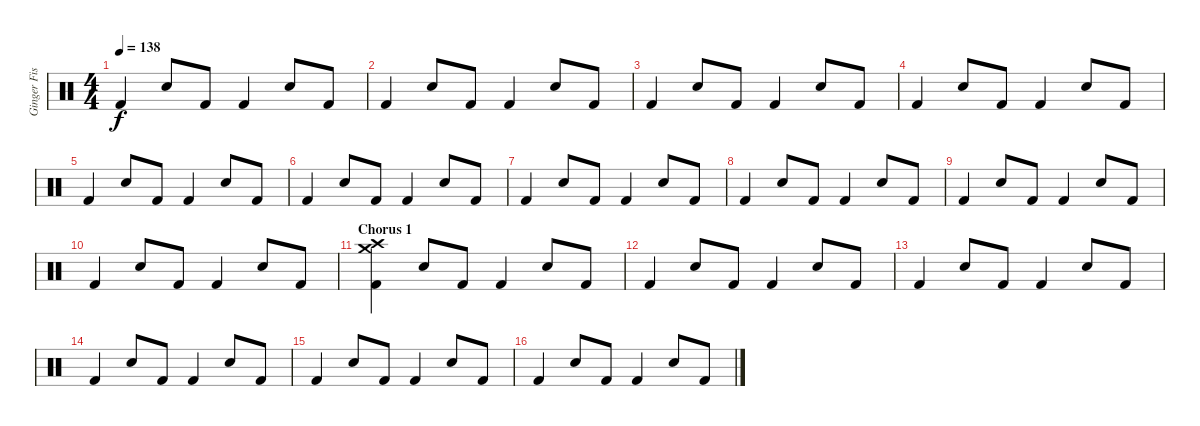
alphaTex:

\track ("Ginger Fish [Drums]" "Ginger Fis") {instrument percussion}
\staff {score}
\articulation defaults
\ts (4 4)
\tempo 138
\clef neutral
\ks c "Kick (hit) 2".4{dy f} "Snare (hit) 2".8 "Kick (hit) 2".8 "Kick (hit) 2".4 "Snare (hit) 2".8 "Kick (hit) 2".8
|
"Kick (hit) 2".4 "Snare (hit) 2".8 "Kick (hit) 2".8 "Kick (hit) 2".4 "Snare (hit) 2".8 "Kick (hit) 2".8 |
"Kick (hit) 2".4 "Snare (hit) 2".8 "Kick (hit) 2".8 "Kick (hit) 2".4 "Snare (hit) 2".8 "Kick (hit) 2".8 |
"Kick (hit) 2".4 "Snare (hit) 2".8 "Kick (hit) 2".8 "Kick (hit) 2".4 "Snare (hit) 2".8 "Kick (hit) 2".8 |
"Kick (hit) 2".4 "Snare (hit) 2".8 "Kick (hit) 2".8 "Kick (hit) 2".4 "Snare (hit) 2".8 "Kick (hit) 2".8 |
"Kick (hit) 2".4 "Snare (hit) 2".8 "Kick (hit) 2".8 "Kick (hit) 2".4 "Snare (hit) 2".8 "Kick (hit) 2".8 |
"Kick (hit) 2".4 "Snare (hit) 2".8 "Kick (hit) 2".8 "Kick (hit) 2".4 "Snare (hit) 2".8 "Kick (hit) 2".8 |
"Kick (hit) 2".4 "Snare (hit) 2".8 "Kick (hit) 2".8 "Kick (hit) 2".4 "Snare (hit) 2".8 "Kick (hit) 2".8 |
"Kick (hit) 2".4 "Snare (hit) 2".8 "Kick (hit) 2".8 "Kick (hit) 2".4 "Snare (hit) 2".8 "Kick (hit) 2".8 |
"Kick (hit) 2".4 "Snare (hit) 2".8 "Kick (hit) 2".8 "Kick (hit) 2".4 "Snare (hit) 2".8 "Kick (hit) 2".8 |
\section ("" "Chorus 1")
("Kick (hit) 2" "Crash high (hit)" "Crash medium (hit)").4 "Snare (hit) 2".8 "Kick (hit) 2".8 "Kick (hit) 2".4 "Snare (hit) 2".8 "Kick (hit) 2".8 |
"Kick (hit) 2".4 "Snare (hit) 2".8 "Kick (hit) 2".8 "Kick (hit) 2".4 "Snare (hit) 2".8 "Kick (hit) 2".8 |
"Kick (hit) 2".4 "Snare (hit) 2".8 "Kick (hit) 2".8 "Kick (hit) 2".4 "Snare (hit) 2".8 "Kick (hit) 2".8 |
"Kick (hit) 2".4 "Snare (hit) 2".8 "Kick (hit) 2".8 "Kick (hit) 2".4 "Snare (hit) 2".8 "Kick (hit) 2".8 |
"Kick (hit) 2".4 "Snare (hit) 2".8 "Kick (hit) 2".8 "Kick (hit) 2".4 "Snare (hit) 2".8 "Kick (hit) 2".8 |
"Kick (hit) 2".4 "Snare (hit) 2".8 "Kick (hit) 2".8 "Kick (hit) 2".4 "Snare (hit) 2".8 "Kick (hit) 2".8
